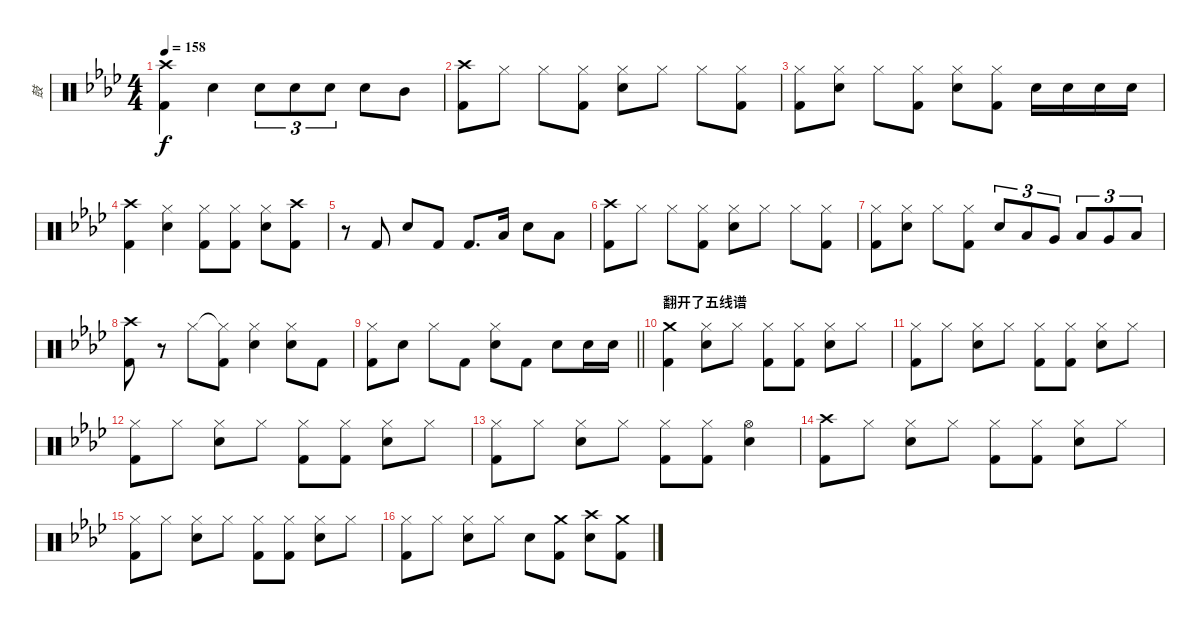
\track ("鼓" "鼓") {instrument percussion}
\staff {score}
\articulation defaults
\ts (4 4)
\tempo 158
\clef neutral
\ks ab
("Crash high (hit)" "Kick (hit) 2").4{dy f} "Electric Snare (hit)".4 "Electric Snare (hit)".8{tu (3 2)} "Electric Snare (hit)".8{tu (3 2)} "Electric Snare (hit)".8{tu (3 2)} "Electric Snare (hit)".8 "Mid Tom (hit)".8 |
("Crash high (hit)" "Kick (hit) 2").8 "Hi-Hat (closed)".8 "Hi-Hat (closed)".8 ("Hi-Hat (closed)" "Kick (hit) 2").8 ("Hi-Hat (closed)" "Electric Snare (hit)").8 "Hi-Hat (closed)".8 "Hi-Hat (closed)".8 ("Hi-Hat (closed)" "Kick (hit) 2").8 |
("Hi-Hat (closed)" "Kick (hit) 2").8 ("Hi-Hat (closed)" "Electric Snare (hit)").8 "Hi-Hat (closed)".8 ("Hi-Hat (closed)" "Kick (hit) 2").8 ("Hi-Hat (closed)" "Electric Snare (hit)").8 ("Hi-Hat (closed)" "Kick (hit) 2").8 "Electric Snare (hit)".16 "Electric Snare (hit)".16 "Electric Snare (hit)".16 "Electric Snare (hit)".16 |
("Crash high (hit)" "Kick (hit) 2").4 ("Hi-Hat (closed)" "Electric Snare (hit)").4 ("Hi-Hat (closed)" "Kick (hit) 2").8 ("Hi-Hat (closed)" "Kick (hit) 2").8 ("Hi-Hat (closed)" "Electric Snare (hit)").8 ("Crash high (hit)" "Kick (hit) 2").8 |
r.8 "Kick (hit) 2".8 "Electric Snare (hit)".8 "Kick (hit) 2".8 "Kick (hit) 2".8{d} "Low Tom (hit)".16 "Electric Snare (hit)".8 "Low Tom (hit)".8 |
("Crash high (hit)" "Kick (hit) 2").8 "Hi-Hat (closed)".8 "Hi-Hat (closed)".8 ("Hi-Hat (closed)" "Kick (hit) 2").8 ("Hi-Hat (closed)" "Electric Snare (hit)").8 "Hi-Hat (closed)".8 "Hi-Hat (closed)".8 ("Hi-Hat (closed)" "Kick (hit) 2").8 |
("Hi-Hat (closed)" "Kick (hit) 2").8 ("Hi-Hat (closed)" "Electric Snare (hit)").8 "Hi-Hat (closed)".8 ("Hi-Hat (closed)" "Kick (hit) 2").8 "Electric Snare (hit)".8{tu (3 2)} "Low Tom (hit)".8{tu (3 2)} "Very Low Tom (hit)".8{tu (3 2)} "Low Tom (hit)".8{tu (3 2)} "Very Low Tom (hit)".8{tu (3 2)} "Low Floor Tom (hit)".8{tu (3 2)} |
("Crash high (hit)" "Kick (hit) 2").8 r.8 "Hi-Hat (closed)".8 ("Hi-Hat (closed)"{t} "Kick (hit) 2").8 ("Hi-Hat (closed)" "Electric Snare (hit)").4 ("Hi-Hat (closed)" "Electric Snare (hit)").8 "Kick (hit) 2".8 |
\barLineRight lightlight
("Kick (hit) 2" "Hi-Hat (closed)").8 "Electric Snare (hit)".8 "Hi-Hat (closed)".8 "Kick (hit) 2".8 ("Hi-Hat (closed)" "Electric Snare (hit)").8 "Kick (hit) 2".8 "Electric Snare (hit)".8 "Electric Snare (hit)".16 "Electric Snare (hit)".16 |
\section ("" "翻开了五线谱")
("Crash medium (hit)" "Kick (hit) 2").4 ("Hi-Hat (closed)" "Electric Snare (hit)").8 "Hi-Hat (closed)".8 ("Hi-Hat (closed)" "Kick (hit) 2").8 ("Hi-Hat (closed)" "Kick (hit) 2").8 ("Hi-Hat (closed)" "Electric Snare (hit)").8 "Hi-Hat (closed)".8 |
("Hi-Hat (closed)" "Kick (hit) 2").8 "Hi-Hat (closed)".8 ("Hi-Hat (closed)" "Electric Snare (hit)").8 "Hi-Hat (closed)".8 ("Hi-Hat (closed)" "Kick (hit) 2").8 ("Hi-Hat (closed)" "Kick (hit) 2").8 ("Hi-Hat (closed)" "Electric Snare (hit)").8 "Hi-Hat (closed)".8 |
("Hi-Hat (closed)" "Kick (hit) 2").8 "Hi-Hat (closed)".8 ("Hi-Hat (closed)" "Electric Snare (hit)").8 "Hi-Hat (closed)".8 ("Hi-Hat (closed)" "Kick (hit) 2").8 ("Hi-Hat (closed)" "Kick (hit) 2").8 ("Hi-Hat (closed)" "Electric Snare (hit)").8 "Hi-Hat (closed)".8 |
("Hi-Hat (closed)" "Kick (hit) 2").8 "Hi-Hat (closed)".8 ("Hi-Hat (closed)" "Electric Snare (hit)").8 "Hi-Hat (closed)".8 ("Hi-Hat (closed)" "Kick (hit) 2").8 ("Hi-Hat (closed)" "Kick (hit) 2").8 ("Hi-Hat (open)" "Electric Snare (hit)").4 |
("Crash high (hit)" "Kick (hit) 2").8 "Hi-Hat (closed)".8 ("Hi-Hat (closed)" "Electric Snare (hit)").8 "Hi-Hat (closed)".8 ("Hi-Hat (closed)" "Kick (hit) 2").8 ("Hi-Hat (closed)" "Kick (hit) 2").8 ("Hi-Hat (closed)" "Electric Snare (hit)").8 "Hi-Hat (closed)".8 |
("Hi-Hat (closed)" "Kick (hit) 2").8 "Hi-Hat (closed)".8 ("Hi-Hat (closed)" "Electric Snare (hit)").8 "Hi-Hat (closed)".8 ("Hi-Hat (closed)" "Kick (hit) 2").8 ("Hi-Hat (closed)" "Kick (hit) 2").8 ("Hi-Hat (closed)" "Electric Snare (hit)").8 "Hi-Hat (closed)".8 |
("Hi-Hat (closed)" "Kick (hit) 2").8 "Hi-Hat (closed)".8 ("Hi-Hat (closed)" "Electric Snare (hit)").8 "Hi-Hat (closed)".8 "Electric Snare (hit)".8 ("Crash medium (hit)" "Kick (hit) 2").8 ("Crash high (hit)" "Electric Snare (hit)").8 ("Crash medium (hit)" "Kick (hit) 2").8
